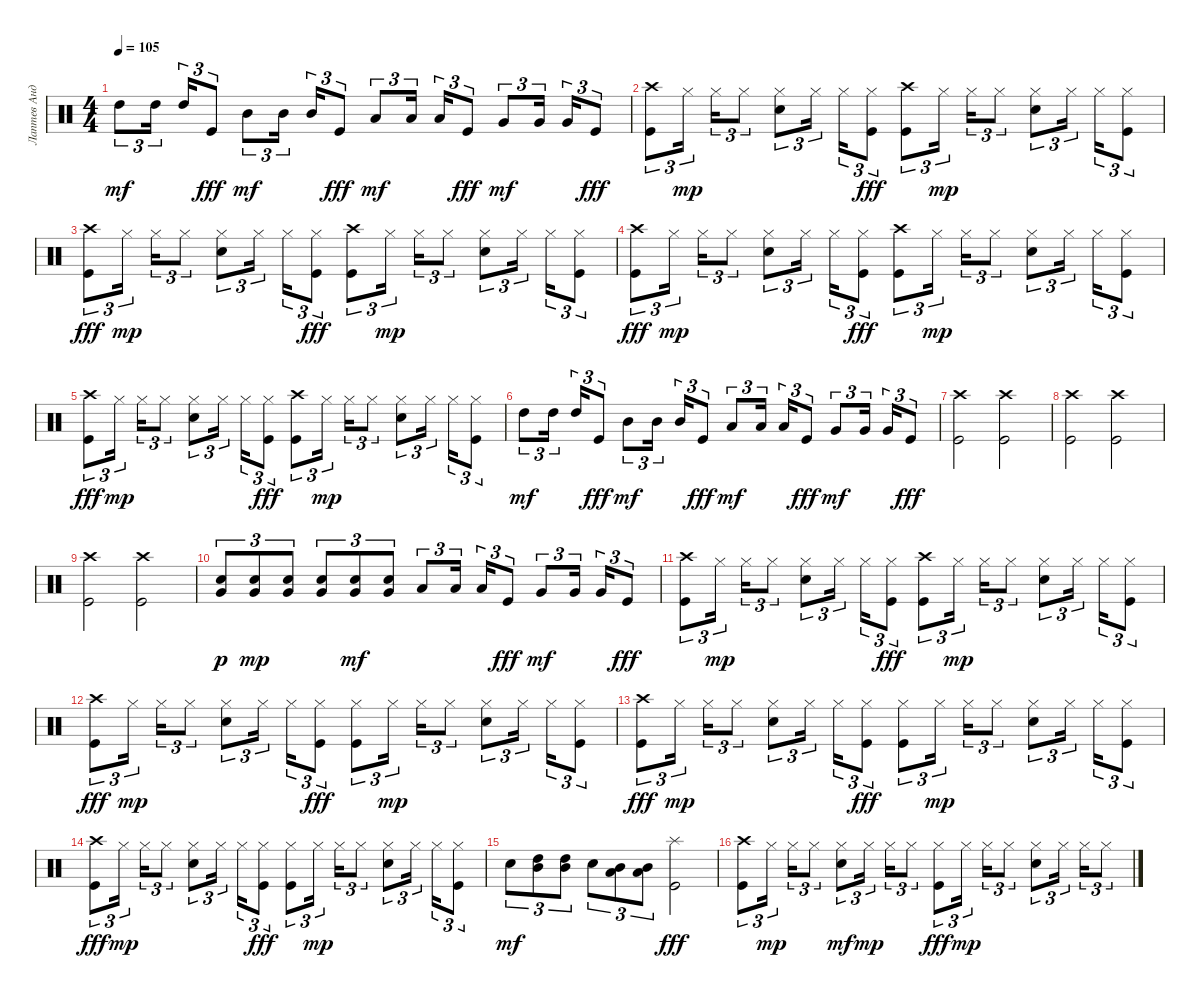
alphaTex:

\track ("Лаптев Андрей" "Лаптев Анд") {instrument percussion}
\staff {score}
\articulation defaults
\ts (4 4)
\tempo 105
\clef neutral
\ks c "High Tom (hit)".8{tu (3 2) dy mf} "High Tom (hit)".16{tu (3 2)} "High Tom (hit)".16{tu (3 2)} "Kick (hit)".8{tu (3 2) dy fff} "Mid Tom (hit)".8{tu (3 2) dy mf} "Mid Tom (hit)".16{tu (3 2)} "Mid Tom (hit)".16{tu (3 2)} "Kick (hit)".8{tu (3 2) dy fff} "Low Tom (hit)".8{tu (3 2) dy mf} "Low Tom (hit)".16{tu (3 2)} "Low Tom (hit)".16{tu (3 2)} "Kick (hit)".8{tu (3 2) dy fff} "Very Low Tom (hit)".8{tu (3 2) dy mf} "Very Low Tom (hit)".16{tu (3 2)} "Very Low Tom (hit)".16{tu (3 2)} "Kick (hit)".8{tu (3 2) dy fff}
|
("Crash high (hit)" "Kick (hit)").8{tu (3 2)} "Hi-Hat (closed)".16{tu (3 2) dy mp} "Hi-Hat (closed)".16{tu (3 2)} "Hi-Hat (closed)".8{tu (3 2)} ("Electric Snare (hit)" "Hi-Hat (closed)").8{tu (3 2)} "Hi-Hat (closed)".16{tu (3 2)} "Hi-Hat (closed)".16{tu (3 2)} ("Hi-Hat (closed)" "Kick (hit)").8{tu (3 2) dy fff} ("Crash high (hit)" "Kick (hit)").8{tu (3 2)} "Hi-Hat (closed)".16{tu (3 2) dy mp} "Hi-Hat (closed)".16{tu (3 2)} "Hi-Hat (closed)".8{tu (3 2)} ("Hi-Hat (closed)" "Electric Snare (hit)").8{tu (3 2)} "Hi-Hat (closed)".16{tu (3 2)} "Hi-Hat (closed)".16{tu (3 2)} ("Hi-Hat (closed)" "Kick (hit)").8{tu (3 2)} |
("Crash high (hit)" "Kick (hit)").8{tu (3 2) dy fff} "Hi-Hat (closed)".16{tu (3 2) dy mp} "Hi-Hat (closed)".16{tu (3 2)} "Hi-Hat (closed)".8{tu (3 2)} ("Electric Snare (hit)" "Hi-Hat (closed)").8{tu (3 2)} "Hi-Hat (closed)".16{tu (3 2)} "Hi-Hat (closed)".16{tu (3 2)} ("Hi-Hat (closed)" "Kick (hit)").8{tu (3 2) dy fff} ("Crash high (hit)" "Kick (hit)").8{tu (3 2)} "Hi-Hat (closed)".16{tu (3 2) dy mp} "Hi-Hat (closed)".16{tu (3 2)} "Hi-Hat (closed)".8{tu (3 2)} ("Hi-Hat (closed)" "Electric Snare (hit)").8{tu (3 2)} "Hi-Hat (closed)".16{tu (3 2)} "Hi-Hat (closed)".16{tu (3 2)} ("Hi-Hat (closed)" "Kick (hit)").8{tu (3 2)} |
("Crash high (hit)" "Kick (hit)").8{tu (3 2) dy fff} "Hi-Hat (closed)".16{tu (3 2) dy mp} "Hi-Hat (closed)".16{tu (3 2)} "Hi-Hat (closed)".8{tu (3 2)} ("Electric Snare (hit)" "Hi-Hat (closed)").8{tu (3 2)} "Hi-Hat (closed)".16{tu (3 2)} "Hi-Hat (closed)".16{tu (3 2)} ("Hi-Hat (closed)" "Kick (hit)").8{tu (3 2) dy fff} ("Crash high (hit)" "Kick (hit)").8{tu (3 2)} "Hi-Hat (closed)".16{tu (3 2) dy mp} "Hi-Hat (closed)".16{tu (3 2)} "Hi-Hat (closed)".8{tu (3 2)} ("Hi-Hat (closed)" "Electric Snare (hit)").8{tu (3 2)} "Hi-Hat (closed)".16{tu (3 2)} "Hi-Hat (closed)".16{tu (3 2)} ("Hi-Hat (closed)" "Kick (hit)").8{tu (3 2)} |
("Crash high (hit)" "Kick (hit)").8{tu (3 2) dy fff} "Hi-Hat (closed)".16{tu (3 2) dy mp} "Hi-Hat (closed)".16{tu (3 2)} "Hi-Hat (closed)".8{tu (3 2)} ("Electric Snare (hit)" "Hi-Hat (closed)").8{tu (3 2)} "Hi-Hat (closed)".16{tu (3 2)} "Hi-Hat (closed)".16{tu (3 2)} ("Hi-Hat (closed)" "Kick (hit)").8{tu (3 2) dy fff} ("Crash high (hit)" "Kick (hit)").8{tu (3 2)} "Hi-Hat (closed)".16{tu (3 2) dy mp} "Hi-Hat (closed)".16{tu (3 2)} "Hi-Hat (closed)".8{tu (3 2)} ("Hi-Hat (closed)" "Electric Snare (hit)").8{tu (3 2)} "Hi-Hat (closed)".16{tu (3 2)} "Hi-Hat (closed)".16{tu (3 2)} ("Hi-Hat (closed)" "Kick (hit)").8{tu (3 2)} |
"High Tom (hit)".8{tu (3 2) dy mf} "High Tom (hit)".16{tu (3 2)} "High Tom (hit)".16{tu (3 2)} "Kick (hit)".8{tu (3 2) dy fff} "Mid Tom (hit)".8{tu (3 2) dy mf} "Mid Tom (hit)".16{tu (3 2)} "Mid Tom (hit)".16{tu (3 2)} "Kick (hit)".8{tu (3 2) dy fff} "Low Tom (hit)".8{tu (3 2) dy mf} "Low Tom (hit)".16{tu (3 2)} "Low Tom (hit)".16{tu (3 2)} "Kick (hit)".8{tu (3 2) dy fff} "Very Low Tom (hit)".8{tu (3 2) dy mf} "Very Low Tom (hit)".16{tu (3 2)} "Very Low Tom (hit)".16{tu (3 2)} "Kick (hit)".8{tu (3 2) dy fff} |
("Crash high (hit)" "Kick (hit)").2 ("Crash high (hit)" "Kick (hit)").2 |
("Crash high (hit)" "Kick (hit)").2 ("Crash high (hit)" "Kick (hit)").2 |
("Crash high (hit)" "Kick (hit)").2 ("Crash high (hit)" "Kick (hit)").2 |
("Very Low Tom (hit)" "Electric Snare (hit)").8{tu (3 2) dy p} ("Very Low Tom (hit)" "Electric Snare (hit)").8{tu (3 2) dy mp} ("Very Low Tom (hit)" "Electric Snare (hit)").8{tu (3 2)} ("Very Low Tom (hit)" "Electric Snare (hit)").8{tu (3 2)} ("Very Low Tom (hit)" "Electric Snare (hit)").8{tu (3 2) dy mf} ("Very Low Tom (hit)" "Electric Snare (hit)").8{tu (3 2)} "Low Tom (hit)".8{tu (3 2)} "Low Tom (hit)".16{tu (3 2)} "Low Tom (hit)".16{tu (3 2)} "Kick (hit)".8{tu (3 2) dy fff} "Very Low Tom (hit)".8{tu (3 2) dy mf} "Very Low Tom (hit)".16{tu (3 2)} "Very Low Tom (hit)".16{tu (3 2)} "Kick (hit)".8{tu (3 2) dy fff} |
("Crash high (hit)" "Kick (hit)").8{tu (3 2)} "Hi-Hat (closed)".16{tu (3 2) dy mp} "Hi-Hat (closed)".16{tu (3 2)} "Hi-Hat (closed)".8{tu (3 2)} ("Electric Snare (hit)" "Hi-Hat (closed)").8{tu (3 2)} "Hi-Hat (closed)".16{tu (3 2)} "Hi-Hat (closed)".16{tu (3 2)} ("Hi-Hat (closed)" "Kick (hit)").8{tu (3 2) dy fff} ("Crash high (hit)" "Kick (hit)").8{tu (3 2)} "Hi-Hat (closed)".16{tu (3 2) dy mp} "Hi-Hat (closed)".16{tu (3 2)} "Hi-Hat (closed)".8{tu (3 2)} ("Hi-Hat (closed)" "Electric Snare (hit)").8{tu (3 2)} "Hi-Hat (closed)".16{tu (3 2)} "Hi-Hat (closed)".16{tu (3 2)} ("Hi-Hat (closed)" "Kick (hit)").8{tu (3 2)} |
("Crash high (hit)" "Kick (hit)").8{tu (3 2) dy fff} "Hi-Hat (closed)".16{tu (3 2) dy mp} "Hi-Hat (closed)".16{tu (3 2)} "Hi-Hat (closed)".8{tu (3 2)} ("Electric Snare (hit)" "Hi-Hat (closed)").8{tu (3 2)} "Hi-Hat (closed)".16{tu (3 2)} "Hi-Hat (closed)".16{tu (3 2)} ("Hi-Hat (closed)" "Kick (hit)").8{tu (3 2) dy fff} ("Hi-Hat (closed)" "Kick (hit)").8{tu (3 2)} "Hi-Hat (closed)".16{tu (3 2) dy mp} "Hi-Hat (closed)".16{tu (3 2)} "Hi-Hat (closed)".8{tu (3 2)} ("Hi-Hat (closed)" "Electric Snare (hit)").8{tu (3 2)} "Hi-Hat (closed)".16{tu (3 2)} "Hi-Hat (closed)".16{tu (3 2)} ("Hi-Hat (closed)" "Kick (hit)").8{tu (3 2)} |
("Crash high (hit)" "Kick (hit)").8{tu (3 2) dy fff} "Hi-Hat (closed)".16{tu (3 2) dy mp} "Hi-Hat (closed)".16{tu (3 2)} "Hi-Hat (closed)".8{tu (3 2)} ("Electric Snare (hit)" "Hi-Hat (closed)").8{tu (3 2)} "Hi-Hat (closed)".16{tu (3 2)} "Hi-Hat (closed)".16{tu (3 2)} ("Hi-Hat (closed)" "Kick (hit)").8{tu (3 2) dy fff} ("Hi-Hat (closed)" "Kick (hit)").8{tu (3 2)} "Hi-Hat (closed)".16{tu (3 2) dy mp} "Hi-Hat (closed)".16{tu (3 2)} "Hi-Hat (closed)".8{tu (3 2)} ("Hi-Hat (closed)" "Electric Snare (hit)").8{tu (3 2)} "Hi-Hat (closed)".16{tu (3 2)} "Hi-Hat (closed)".16{tu (3 2)} ("Hi-Hat (closed)" "Kick (hit)").8{tu (3 2)} |
("Crash high (hit)" "Kick (hit)").8{tu (3 2) dy fff} "Hi-Hat (closed)".16{tu (3 2) dy mp} "Hi-Hat (closed)".16{tu (3 2)} "Hi-Hat (closed)".8{tu (3 2)} ("Electric Snare (hit)" "Hi-Hat (closed)").8{tu (3 2)} "Hi-Hat (closed)".16{tu (3 2)} "Hi-Hat (closed)".16{tu (3 2)} ("Hi-Hat (closed)" "Kick (hit)").8{tu (3 2) dy fff} ("Hi-Hat (closed)" "Kick (hit)").8{tu (3 2)} "Hi-Hat (closed)".16{tu (3 2) dy mp} "Hi-Hat (closed)".16{tu (3 2)} "Hi-Hat (closed)".8{tu (3 2)} ("Hi-Hat (closed)" "Electric Snare (hit)").8{tu (3 2)} "Hi-Hat (closed)".16{tu (3 2)} "Hi-Hat (closed)".16{tu (3 2)} ("Hi-Hat (closed)" "Kick (hit)").8{tu (3 2)} |
"Electric Snare (hit)".8{tu (3 2) dy mf} ("Mid Tom (hit)" "High Tom (hit)").8{tu (3 2)} ("Mid Tom (hit)" "High Tom (hit)").8{tu (3 2)} "Electric Snare (hit)".8{tu (3 2)} ("Mid Tom (hit)" "Low Tom (hit)").8{tu (3 2)} ("Low Tom (hit)" "Mid Tom (hit)").8{tu (3 2)} ("Splash (hit)" "Kick (hit)").2{dy fff} |
("Crash high (hit)" "Kick (hit)").8{tu (3 2)} "Hi-Hat (closed)".16{tu (3 2) dy mp} "Hi-Hat (closed)".16{tu (3 2)} "Hi-Hat (closed)".8{tu (3 2)} ("Hi-Hat (closed)" "Electric Snare (hit)").8{tu (3 2) dy mf} "Hi-Hat (closed)".16{tu (3 2) dy mp} "Hi-Hat (closed)".16{tu (3 2)} "Hi-Hat (closed)".8{tu (3 2)} ("Hi-Hat (closed)" "Kick (hit)").8{tu (3 2) dy fff} "Hi-Hat (closed)".16{tu (3 2) dy mp} "Hi-Hat (closed)".16{tu (3 2)} "Hi-Hat (closed)".8{tu (3 2)} ("Hi-Hat (closed)" "Electric Snare (hit)").8{tu (3 2)} "Hi-Hat (closed)".16{tu (3 2)} "Hi-Hat (closed)".16{tu (3 2)} "Hi-Hat (closed)".8{tu (3 2)}
